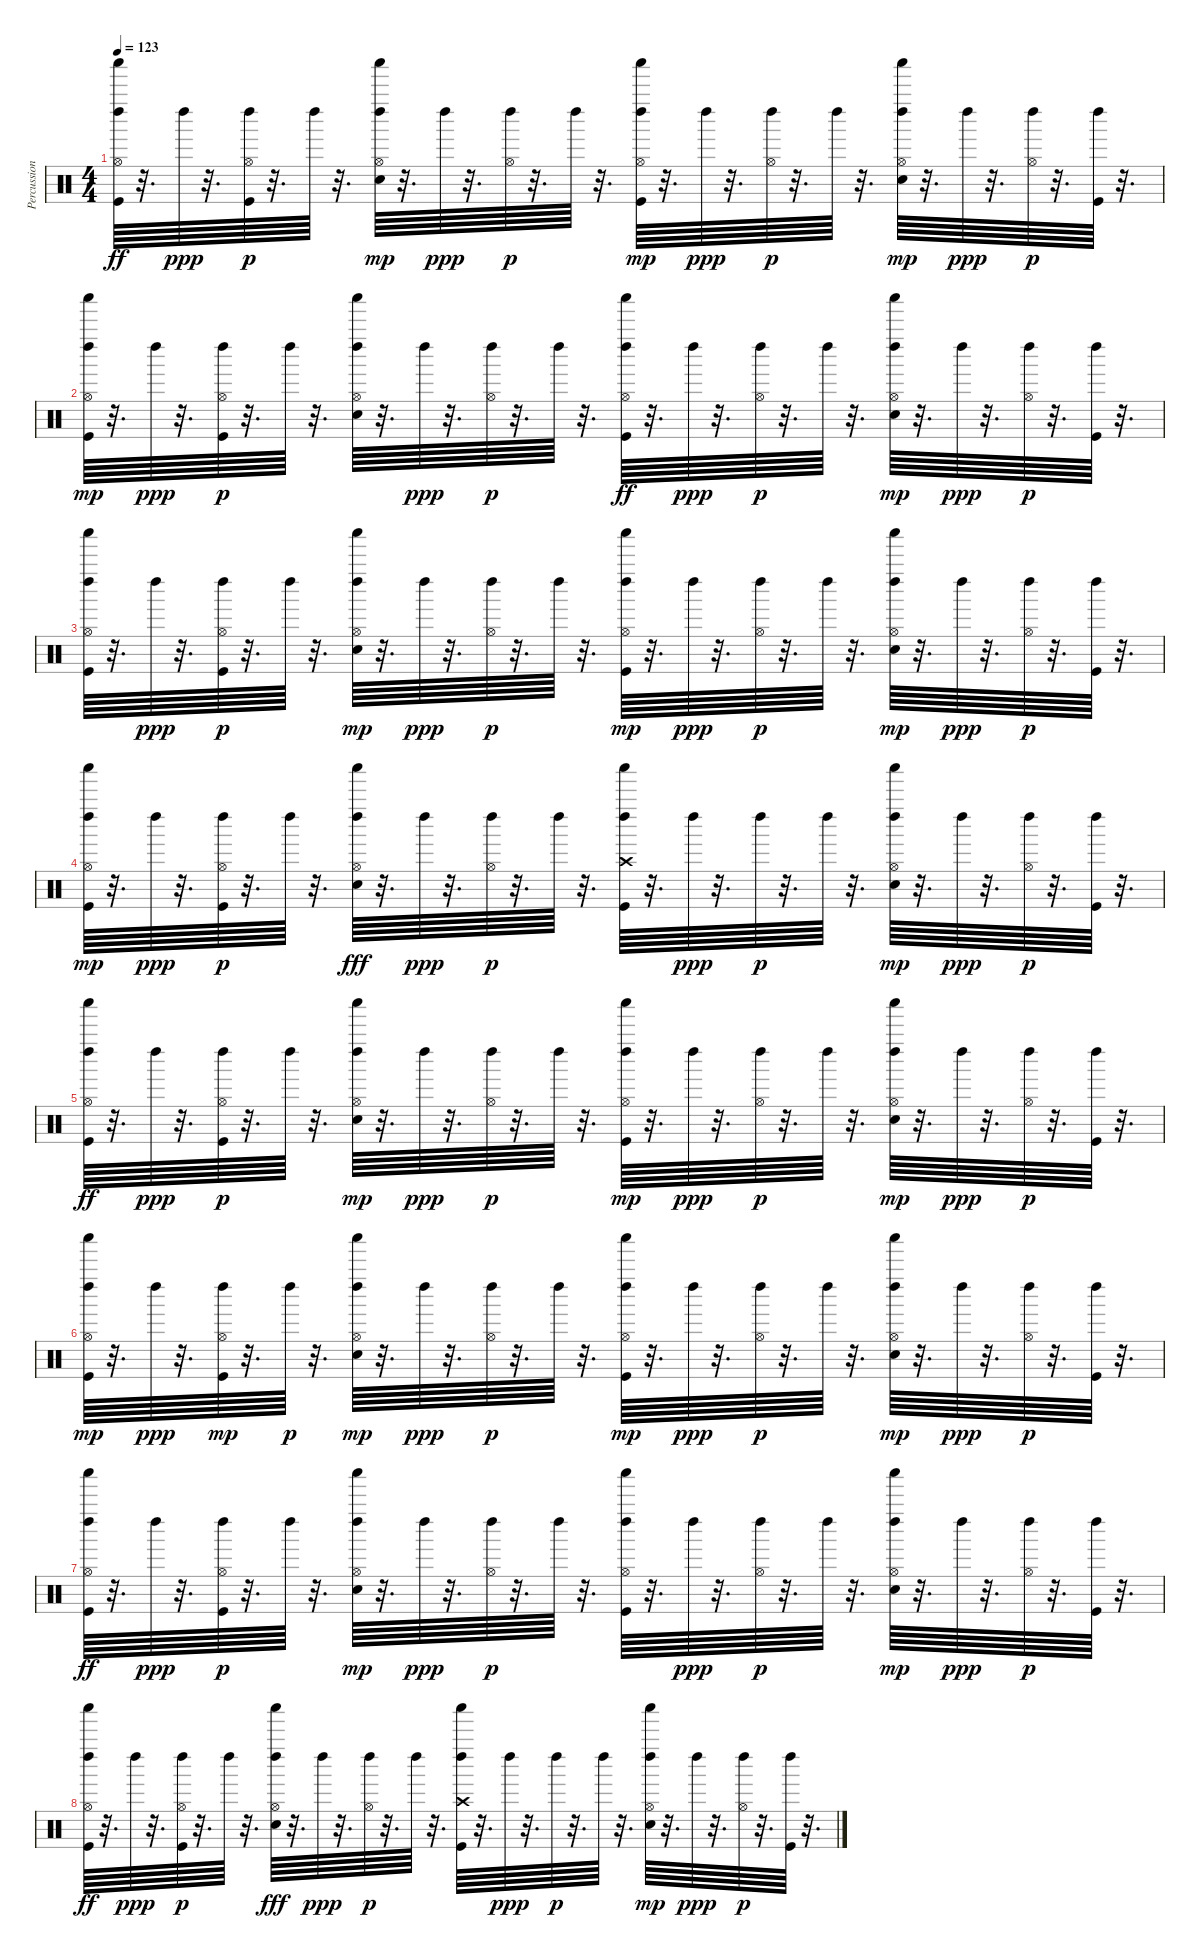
\track ("Percussion" "Percussion") {instrument percussion}
\staff {score}
\articulation defaults
\ts (4 4)
\tempo 123
\clef neutral
\ks c
("Hi-Hat (open)" "Shaker (hit)" "Left Maraca (hit)" "Kick (hit)").64{dy ff} r.32{d} "Left Maraca (hit)".64{dy ppp} r.32{d} ("Left Maraca (hit)" "Kick (hit)" "Hi-Hat (open)").64{dy p} r.32{d} "Left Maraca (hit)".64 r.32{d} ("Hi-Hat (open)" "Electric Snare (hit)" "Shaker (hit)" "Left Maraca (hit)").64{dy mp} r.32{d} "Left Maraca (hit)".64{dy ppp} r.32{d} ("Hi-Hat (open)" "Left Maraca (hit)").64{dy p} r.32{d} "Left Maraca (hit)".64 r.32{d} ("Kick (hit)" "Hi-Hat (open)" "Left Maraca (hit)" "Shaker (hit)").64{dy mp} r.32{d} "Left Maraca (hit)".64{dy ppp} r.32{d} ("Hi-Hat (open)" "Left Maraca (hit)").64{dy p} r.32{d} "Left Maraca (hit)".64 r.32{d} ("Hi-Hat (open)" "Electric Snare (hit)" "Shaker (hit)" "Left Maraca (hit)").64{dy mp} r.32{d} "Left Maraca (hit)".64{dy ppp} r.32{d} ("Hi-Hat (open)" "Left Maraca (hit)").64{dy p} r.32{d} ("Kick (hit)" "Left Maraca (hit)").64 r.32{d} |
("Kick (hit)" "Hi-Hat (open)" "Left Maraca (hit)" "Shaker (hit)").64{dy mp} r.32{d} "Left Maraca (hit)".64{dy ppp} r.32{d} ("Kick (hit)" "Hi-Hat (open)" "Left Maraca (hit)").64{dy p} r.32{d} "Left Maraca (hit)".64 r.32{d} ("Electric Snare (hit)" "Left Maraca (hit)" "Shaker (hit)" "Hi-Hat (open)").64 r.32{d} "Left Maraca (hit)".64{dy ppp} r.32{d} ("Hi-Hat (open)" "Left Maraca (hit)").64{dy p} r.32{d} "Left Maraca (hit)".64 r.32{d} ("Shaker (hit)" "Left Maraca (hit)" "Hi-Hat (open)" "Kick (hit)").64{dy ff} r.32{d} "Left Maraca (hit)".64{dy ppp} r.32{d} ("Hi-Hat (open)" "Left Maraca (hit)").64{dy p} r.32{d} "Left Maraca (hit)".64 r.32{d} ("Electric Snare (hit)" "Hi-Hat (open)" "Left Maraca (hit)" "Shaker (hit)").64{dy mp} r.32{d} "Left Maraca (hit)".64{dy ppp} r.32{d} ("Hi-Hat (open)" "Left Maraca (hit)").64{dy p} r.32{d} ("Kick (hit)" "Left Maraca (hit)").64 r.32{d} |
("Kick (hit)" "Left Maraca (hit)" "Shaker (hit)" "Hi-Hat (open)").64 r.32{d} "Left Maraca (hit)".64{dy ppp} r.32{d} ("Kick (hit)" "Hi-Hat (open)" "Left Maraca (hit)").64{dy p} r.32{d} "Left Maraca (hit)".64 r.32{d} ("Shaker (hit)" "Hi-Hat (open)" "Electric Snare (hit)" "Left Maraca (hit)").64{dy mp} r.32{d} "Left Maraca (hit)".64{dy ppp} r.32{d} ("Hi-Hat (open)" "Left Maraca (hit)").64{dy p} r.32{d} "Left Maraca (hit)".64 r.32{d} ("Kick (hit)" "Hi-Hat (open)" "Left Maraca (hit)" "Shaker (hit)").64{dy mp} r.32{d} "Left Maraca (hit)".64{dy ppp} r.32{d} ("Hi-Hat (open)" "Left Maraca (hit)").64{dy p} r.32{d} "Left Maraca (hit)".64 r.32{d} ("Electric Snare (hit)" "Shaker (hit)" "Hi-Hat (open)" "Left Maraca (hit)").64{dy mp} r.32{d} "Left Maraca (hit)".64{dy ppp} r.32{d} ("Hi-Hat (open)" "Left Maraca (hit)").64{dy p} r.32{d} ("Kick (hit)" "Left Maraca (hit)").64 r.32{d} |
("Shaker (hit)" "Hi-Hat (open)" "Kick (hit)" "Left Maraca (hit)").64{dy mp} r.32{d} "Left Maraca (hit)".64{dy ppp} r.32{d} ("Kick (hit)" "Hi-Hat (open)" "Left Maraca (hit)").64{dy p} r.32{d} "Left Maraca (hit)".64 r.32{d} ("Left Maraca (hit)" "Hi-Hat (open)" "Shaker (hit)" "Electric Snare (hit)").64{dy fff} r.32{d} "Left Maraca (hit)".64{dy ppp} r.32{d} ("Hi-Hat (open)" "Left Maraca (hit)").64{dy p} r.32{d} "Left Maraca (hit)".64 r.32{d} ("Left Maraca (hit)" "Shaker (hit)" "Kick (hit)" "Crash high (hit)").64 r.32{d} "Left Maraca (hit)".64{dy ppp} r.32{d} "Left Maraca (hit)".64{dy p} r.32{d} "Left Maraca (hit)".64 r.32{d} ("Electric Snare (hit)" "Hi-Hat (open)" "Left Maraca (hit)" "Shaker (hit)").64{dy mp} r.32{d} "Left Maraca (hit)".64{dy ppp} r.32{d} ("Hi-Hat (open)" "Left Maraca (hit)").64{dy p} r.32{d} ("Kick (hit)" "Left Maraca (hit)").64 r.32{d} |
("Shaker (hit)" "Left Maraca (hit)" "Hi-Hat (open)" "Kick (hit)").64{dy ff} r.32{d} "Left Maraca (hit)".64{dy ppp} r.32{d} ("Kick (hit)" "Hi-Hat (open)" "Left Maraca (hit)").64{dy p} r.32{d} "Left Maraca (hit)".64 r.32{d} ("Electric Snare (hit)" "Hi-Hat (open)" "Left Maraca (hit)" "Shaker (hit)").64{dy mp} r.32{d} "Left Maraca (hit)".64{dy ppp} r.32{d} ("Hi-Hat (open)" "Left Maraca (hit)").64{dy p} r.32{d} "Left Maraca (hit)".64 r.32{d} ("Kick (hit)" "Hi-Hat (open)" "Left Maraca (hit)" "Shaker (hit)").64{dy mp} r.32{d} "Left Maraca (hit)".64{dy ppp} r.32{d} ("Hi-Hat (open)" "Left Maraca (hit)").64{dy p} r.32{d} "Left Maraca (hit)".64 r.32{d} ("Electric Snare (hit)" "Hi-Hat (open)" "Left Maraca (hit)" "Shaker (hit)").64{dy mp} r.32{d} "Left Maraca (hit)".64{dy ppp} r.32{d} ("Hi-Hat (open)" "Left Maraca (hit)").64{dy p} r.32{d} ("Kick (hit)" "Left Maraca (hit)").64 r.32{d} |
("Kick (hit)" "Hi-Hat (open)" "Left Maraca (hit)" "Shaker (hit)").64{dy mp} r.32{d} "Left Maraca (hit)".64{dy ppp} r.32{d} ("Hi-Hat (open)" "Left Maraca (hit)" "Kick (hit)").64{dy mp} r.32{d} "Left Maraca (hit)".64{dy p} r.32{d} ("Left Maraca (hit)" "Electric Snare (hit)" "Hi-Hat (open)" "Shaker (hit)").64{dy mp} r.32{d} "Left Maraca (hit)".64{dy ppp} r.32{d} ("Hi-Hat (open)" "Left Maraca (hit)").64{dy p} r.32{d} "Left Maraca (hit)".64 r.32{d} ("Kick (hit)" "Hi-Hat (open)" "Left Maraca (hit)" "Shaker (hit)").64{dy mp} r.32{d} "Left Maraca (hit)".64{dy ppp} r.32{d} ("Hi-Hat (open)" "Left Maraca (hit)").64{dy p} r.32{d} "Left Maraca (hit)".64 r.32{d} ("Hi-Hat (open)" "Electric Snare (hit)" "Shaker (hit)" "Left Maraca (hit)").64{dy mp} r.32{d} "Left Maraca (hit)".64{dy ppp} r.32{d} ("Hi-Hat (open)" "Left Maraca (hit)").64{dy p} r.32{d} ("Kick (hit)" "Left Maraca (hit)").64 r.32{d} |
("Shaker (hit)" "Left Maraca (hit)" "Hi-Hat (open)" "Kick (hit)").64{dy ff} r.32{d} "Left Maraca (hit)".64{dy ppp} r.32{d} ("Kick (hit)" "Hi-Hat (open)" "Left Maraca (hit)").64{dy p} r.32{d} "Left Maraca (hit)".64 r.32{d} ("Electric Snare (hit)" "Hi-Hat (open)" "Left Maraca (hit)" "Shaker (hit)").64{dy mp} r.32{d} "Left Maraca (hit)".64{dy ppp} r.32{d} ("Hi-Hat (open)" "Left Maraca (hit)").64{dy p} r.32{d} "Left Maraca (hit)".64 r.32{d} ("Kick (hit)" "Left Maraca (hit)" "Shaker (hit)" "Hi-Hat (open)").64 r.32{d} "Left Maraca (hit)".64{dy ppp} r.32{d} ("Hi-Hat (open)" "Left Maraca (hit)").64{dy p} r.32{d} "Left Maraca (hit)".64 r.32{d} ("Electric Snare (hit)" "Hi-Hat (open)" "Left Maraca (hit)" "Shaker (hit)").64{dy mp} r.32{d} "Left Maraca (hit)".64{dy ppp} r.32{d} ("Hi-Hat (open)" "Left Maraca (hit)").64{dy p} r.32{d} ("Kick (hit)" "Left Maraca (hit)").64 r.32{d} |
("Hi-Hat (open)" "Shaker (hit)" "Left Maraca (hit)" "Kick (hit)").64{dy ff} r.32{d} "Left Maraca (hit)".64{dy ppp} r.32{d} ("Left Maraca (hit)" "Kick (hit)" "Hi-Hat (open)").64{dy p} r.32{d} "Left Maraca (hit)".64 r.32{d} ("Hi-Hat (open)" "Shaker (hit)" "Left Maraca (hit)" "Electric Snare (hit)").64{dy fff} r.32{d} "Left Maraca (hit)".64{dy ppp} r.32{d} ("Hi-Hat (open)" "Left Maraca (hit)").64{dy p} r.32{d} "Left Maraca (hit)".64 r.32{d} ("Kick (hit)" "Left Maraca (hit)" "Shaker (hit)" "Crash high (hit)").64 r.32{d} "Left Maraca (hit)".64{dy ppp} r.32{d} "Left Maraca (hit)".64{dy p} r.32{d} "Left Maraca (hit)".64 r.32{d} ("Electric Snare (hit)" "Hi-Hat (open)" "Left Maraca (hit)" "Shaker (hit)").64{dy mp} r.32{d} "Left Maraca (hit)".64{dy ppp} r.32{d} ("Hi-Hat (open)" "Left Maraca (hit)").64{dy p} r.32{d} ("Kick (hit)" "Left Maraca (hit)").64 r.32{d}
